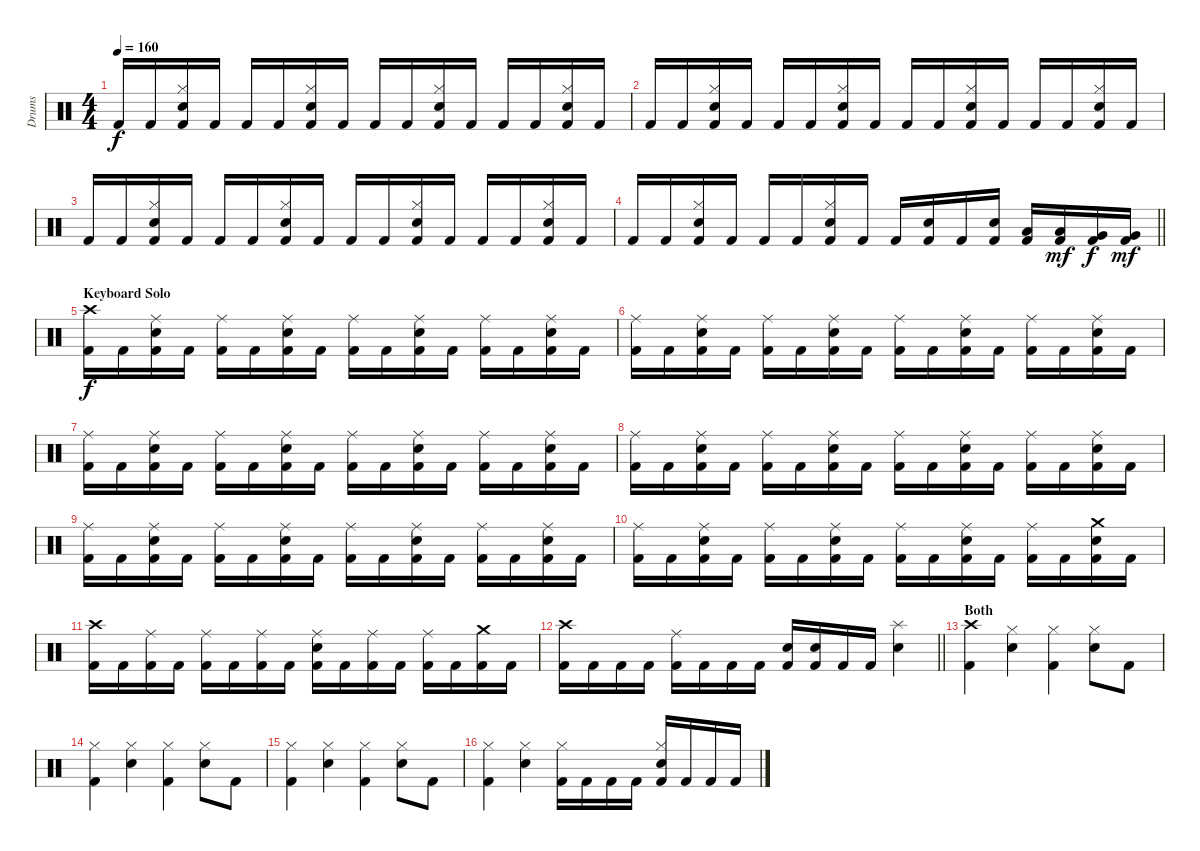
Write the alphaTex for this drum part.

\track ("Drums" "Drums") {instrument percussion}
\staff {score}
\articulation defaults
\ts (4 4)
\tempo 160
\clef neutral
\ks c "Kick (hit) 2".16{dy f} "Kick (hit) 2".16
("Kick (hit) 2" "Hi-Hat (closed)" "Electric Snare (hit)").16 "Kick (hit) 2".16 "Kick (hit) 2".16 "Kick (hit) 2".16 ("Kick (hit) 2" "Hi-Hat (closed)" "Electric Snare (hit)").16 "Kick (hit) 2".16 "Kick (hit) 2".16 "Kick (hit) 2".16 ("Kick (hit) 2" "Hi-Hat (closed)" "Electric Snare (hit)").16 "Kick (hit) 2".16 "Kick (hit) 2".16 "Kick (hit) 2".16 ("Kick (hit) 2" "Hi-Hat (closed)" "Electric Snare (hit)").16 "Kick (hit) 2".16 |
"Kick (hit) 2".16 "Kick (hit) 2".16 ("Kick (hit) 2" "Hi-Hat (closed)" "Electric Snare (hit)").16 "Kick (hit) 2".16 "Kick (hit) 2".16 "Kick (hit) 2".16 ("Kick (hit) 2" "Hi-Hat (closed)" "Electric Snare (hit)").16 "Kick (hit) 2".16 "Kick (hit) 2".16 "Kick (hit) 2".16 ("Kick (hit) 2" "Hi-Hat (closed)" "Electric Snare (hit)").16 "Kick (hit) 2".16 "Kick (hit) 2".16 "Kick (hit) 2".16 ("Kick (hit) 2" "Hi-Hat (closed)" "Electric Snare (hit)").16 "Kick (hit) 2".16 |
"Kick (hit) 2".16 "Kick (hit) 2".16 ("Kick (hit) 2" "Hi-Hat (closed)" "Electric Snare (hit)").16 "Kick (hit) 2".16 "Kick (hit) 2".16 "Kick (hit) 2".16 ("Kick (hit) 2" "Hi-Hat (closed)" "Electric Snare (hit)").16 "Kick (hit) 2".16 "Kick (hit) 2".16 "Kick (hit) 2".16 ("Kick (hit) 2" "Hi-Hat (closed)" "Electric Snare (hit)").16 "Kick (hit) 2".16 "Kick (hit) 2".16 "Kick (hit) 2".16 ("Kick (hit) 2" "Hi-Hat (closed)" "Electric Snare (hit)").16 "Kick (hit) 2".16 |
\barLineRight lightlight "Kick (hit) 2".16 "Kick (hit) 2".16
("Kick (hit) 2" "Hi-Hat (closed)" "Electric Snare (hit)").16 "Kick (hit) 2".16 "Kick (hit) 2".16 "Kick (hit) 2".16 ("Kick (hit) 2" "Hi-Hat (closed)" "Electric Snare (hit)").16 "Kick (hit) 2".16 "Kick (hit) 2".16 ("Kick (hit) 2" "Electric Snare (hit)").16 "Kick (hit) 2".16 ("Kick (hit) 2" "Electric Snare (hit)").16 ("Kick (hit) 2" "Low Tom (hit)").16 ("Kick (hit) 2" "Low Tom (hit)").16{dy mf} ("Kick (hit) 2" "Very Low Tom (hit)").16{dy f} ("Kick (hit) 2" "Very Low Tom (hit)").16{dy mf} |
\section ("" "Keyboard Solo")
("Kick (hit) 2" "Crash high (hit)").16{dy f} "Kick (hit) 2".16 ("Kick (hit) 2" "Ride (middle)" "Electric Snare (hit)").16 "Kick (hit) 2".16 ("Kick (hit) 2" "Ride (middle)").16 "Kick (hit) 2".16 ("Kick (hit) 2" "Ride (middle)" "Electric Snare (hit)").16 "Kick (hit) 2".16 ("Kick (hit) 2" "Ride (middle)").16 "Kick (hit) 2".16 ("Kick (hit) 2" "Ride (middle)" "Electric Snare (hit)").16 "Kick (hit) 2".16 ("Kick (hit) 2" "Ride (middle)").16 "Kick (hit) 2".16 ("Kick (hit) 2" "Ride (middle)" "Electric Snare (hit)").16 "Kick (hit) 2".16 |
("Kick (hit) 2" "Ride (middle)").16 "Kick (hit) 2".16 ("Kick (hit) 2" "Ride (middle)" "Electric Snare (hit)").16 "Kick (hit) 2".16 ("Kick (hit) 2" "Ride (middle)").16 "Kick (hit) 2".16 ("Kick (hit) 2" "Ride (middle)" "Electric Snare (hit)").16 "Kick (hit) 2".16 ("Kick (hit) 2" "Ride (middle)").16 "Kick (hit) 2".16 ("Kick (hit) 2" "Ride (middle)" "Electric Snare (hit)").16 "Kick (hit) 2".16 ("Kick (hit) 2" "Ride (middle)").16 "Kick (hit) 2".16 ("Kick (hit) 2" "Ride (middle)" "Electric Snare (hit)").16 "Kick (hit) 2".16 |
("Kick (hit) 2" "Ride (middle)").16 "Kick (hit) 2".16 ("Kick (hit) 2" "Ride (middle)" "Electric Snare (hit)").16 "Kick (hit) 2".16 ("Kick (hit) 2" "Ride (middle)").16 "Kick (hit) 2".16 ("Kick (hit) 2" "Ride (middle)" "Electric Snare (hit)").16 "Kick (hit) 2".16 ("Kick (hit) 2" "Ride (middle)").16 "Kick (hit) 2".16 ("Kick (hit) 2" "Ride (middle)" "Electric Snare (hit)").16 "Kick (hit) 2".16 ("Kick (hit) 2" "Ride (middle)").16 "Kick (hit) 2".16 ("Kick (hit) 2" "Ride (middle)" "Electric Snare (hit)").16 "Kick (hit) 2".16 |
("Kick (hit) 2" "Ride (middle)").16 "Kick (hit) 2".16 ("Kick (hit) 2" "Ride (middle)" "Electric Snare (hit)").16 "Kick (hit) 2".16 ("Kick (hit) 2" "Ride (middle)").16 "Kick (hit) 2".16 ("Kick (hit) 2" "Ride (middle)" "Electric Snare (hit)").16 "Kick (hit) 2".16 ("Kick (hit) 2" "Ride (middle)").16 "Kick (hit) 2".16 ("Kick (hit) 2" "Ride (middle)" "Electric Snare (hit)").16 "Kick (hit) 2".16 ("Kick (hit) 2" "Ride (middle)").16 "Kick (hit) 2".16 ("Kick (hit) 2" "Ride (middle)" "Electric Snare (hit)").16 "Kick (hit) 2".16 |
("Kick (hit) 2" "Ride (middle)").16 "Kick (hit) 2".16 ("Kick (hit) 2" "Ride (middle)" "Electric Snare (hit)").16 "Kick (hit) 2".16 ("Kick (hit) 2" "Ride (middle)").16 "Kick (hit) 2".16 ("Kick (hit) 2" "Ride (middle)" "Electric Snare (hit)").16 "Kick (hit) 2".16 ("Kick (hit) 2" "Ride (middle)").16 "Kick (hit) 2".16 ("Kick (hit) 2" "Ride (middle)" "Electric Snare (hit)").16 "Kick (hit) 2".16 ("Kick (hit) 2" "Ride (middle)").16 "Kick (hit) 2".16 ("Kick (hit) 2" "Ride (middle)" "Electric Snare (hit)").16 "Kick (hit) 2".16 |
("Kick (hit) 2" "Ride (middle)").16 "Kick (hit) 2".16 ("Kick (hit) 2" "Ride (middle)" "Electric Snare (hit)").16 "Kick (hit) 2".16 ("Kick (hit) 2" "Ride (middle)").16 "Kick (hit) 2".16 ("Kick (hit) 2" "Ride (middle)" "Electric Snare (hit)").16 "Kick (hit) 2".16 ("Kick (hit) 2" "Ride (middle)").16 "Kick (hit) 2".16 ("Kick (hit) 2" "Ride (middle)" "Electric Snare (hit)").16 "Kick (hit) 2".16 ("Kick (hit) 2" "Ride (middle)").16 "Kick (hit) 2".16 ("Kick (hit) 2" "Crash medium (hit)" "Electric Snare (hit)").16 "Kick (hit) 2".16 |
("Kick (hit) 2" "Crash high (hit)").16 "Kick (hit) 2".16 ("Kick (hit) 2" "Ride (middle)").16 "Kick (hit) 2".16 ("Kick (hit) 2" "Ride (middle)").16 "Kick (hit) 2".16 ("Kick (hit) 2" "Ride (middle)").16 "Kick (hit) 2".16 ("Kick (hit) 2" "Ride (middle)" "Electric Snare (hit)").16 "Kick (hit) 2".16 ("Kick (hit) 2" "Ride (middle)").16 "Kick (hit) 2".16 ("Kick (hit) 2" "Ride (middle)").16 "Kick (hit) 2".16 ("Kick (hit) 2" "Crash medium (hit)").16 "Kick (hit) 2".16 |
\barLineRight lightlight
("Kick (hit) 2" "Crash high (hit)").16 "Kick (hit) 2".16 "Kick (hit) 2".16 "Kick (hit) 2".16 ("Kick (hit) 2" "Ride (middle)").16 "Kick (hit) 2".16 "Kick (hit) 2".16 "Kick (hit) 2".16 ("Kick (hit) 2" "Electric Snare (hit)").16 ("Kick (hit) 2" "Electric Snare (hit)").16 "Kick (hit) 2".16 "Kick (hit) 2".16 ("Splash (hit)" "Electric Snare (hit)").4 |
\section ("" "Both")
("Kick (hit) 2" "Crash high (hit)").4 ("Hi-Hat (closed)" "Electric Snare (hit)").4 ("Kick (hit) 2" "Hi-Hat (closed)").4 ("Hi-Hat (closed)" "Electric Snare (hit)").8 "Kick (hit) 2".8 |
("Kick (hit) 2" "Hi-Hat (closed)").4 ("Hi-Hat (closed)" "Electric Snare (hit)").4 ("Kick (hit) 2" "Hi-Hat (closed)").4 ("Hi-Hat (closed)" "Electric Snare (hit)").8 "Kick (hit) 2".8 |
("Kick (hit) 2" "Hi-Hat (closed)").4 ("Hi-Hat (closed)" "Electric Snare (hit)").4 ("Kick (hit) 2" "Hi-Hat (closed)").4 ("Hi-Hat (closed)" "Electric Snare (hit)").8 "Kick (hit) 2".8 |
("Kick (hit) 2" "Hi-Hat (closed)").4 ("Hi-Hat (closed)" "Electric Snare (hit)").4 ("Kick (hit) 2" "Hi-Hat (closed)").16 "Kick (hit) 2".16 "Kick (hit) 2".16 "Kick (hit) 2".16 ("Kick (hit) 2" "Hi-Hat (closed)" "Electric Snare (hit)").16 "Kick (hit) 2".16 "Kick (hit) 2".16 "Kick (hit) 2".16
